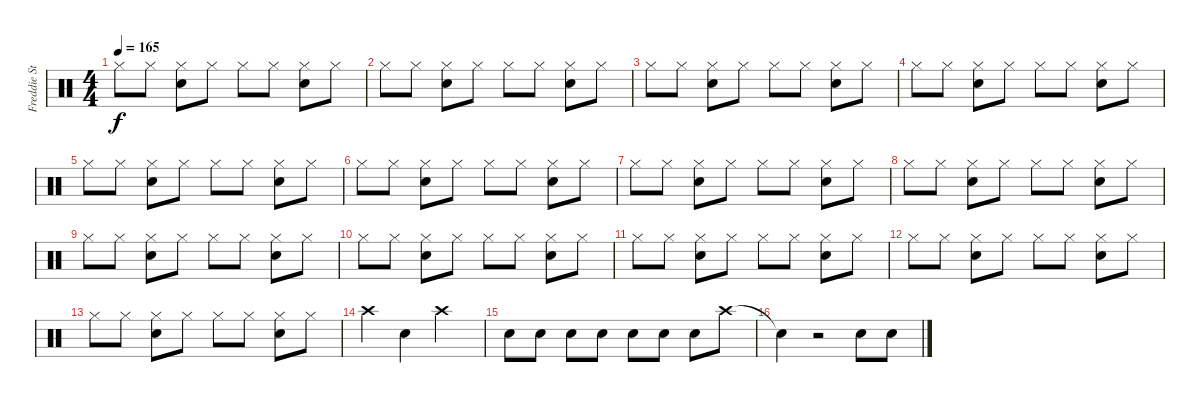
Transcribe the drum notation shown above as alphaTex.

\track ("Freddie Strauks" "Freddie St") {instrument percussion}
\staff {score}
\articulation defaults
\ts (4 4)
\tempo 165
\clef neutral
\ks c "Hi-Hat (closed)".8{dy f} "Hi-Hat (closed)".8
("Hi-Hat (closed)" "Snare (hit) 2").8 "Hi-Hat (closed)".8 "Hi-Hat (closed)".8 "Hi-Hat (closed)".8 ("Hi-Hat (closed)" "Snare (hit) 2").8 "Hi-Hat (closed)".8 |
"Hi-Hat (closed)".8 "Hi-Hat (closed)".8 ("Hi-Hat (closed)" "Snare (hit) 2").8 "Hi-Hat (closed)".8 "Hi-Hat (closed)".8 "Hi-Hat (closed)".8 ("Hi-Hat (closed)" "Snare (hit) 2").8 "Hi-Hat (closed)".8 |
"Hi-Hat (closed)".8 "Hi-Hat (closed)".8 ("Hi-Hat (closed)" "Snare (hit) 2").8 "Hi-Hat (closed)".8 "Hi-Hat (closed)".8 "Hi-Hat (closed)".8 ("Hi-Hat (closed)" "Snare (hit) 2").8 "Hi-Hat (closed)".8 |
"Hi-Hat (closed)".8 "Hi-Hat (closed)".8 ("Hi-Hat (closed)" "Snare (hit) 2").8 "Hi-Hat (closed)".8 "Hi-Hat (closed)".8 "Hi-Hat (closed)".8 ("Hi-Hat (closed)" "Snare (hit) 2").8 "Hi-Hat (closed)".8 |
"Hi-Hat (closed)".8 "Hi-Hat (closed)".8 ("Hi-Hat (closed)" "Snare (hit) 2").8 "Hi-Hat (closed)".8 "Hi-Hat (closed)".8 "Hi-Hat (closed)".8 ("Hi-Hat (closed)" "Snare (hit) 2").8 "Hi-Hat (closed)".8 |
"Hi-Hat (closed)".8 "Hi-Hat (closed)".8 ("Hi-Hat (closed)" "Snare (hit) 2").8 "Hi-Hat (closed)".8 "Hi-Hat (closed)".8 "Hi-Hat (closed)".8 ("Hi-Hat (closed)" "Snare (hit) 2").8 "Hi-Hat (closed)".8 |
"Hi-Hat (closed)".8 "Hi-Hat (closed)".8 ("Hi-Hat (closed)" "Snare (hit) 2").8 "Hi-Hat (closed)".8 "Hi-Hat (closed)".8 "Hi-Hat (closed)".8 ("Hi-Hat (closed)" "Snare (hit) 2").8 "Hi-Hat (closed)".8 |
"Hi-Hat (closed)".8 "Hi-Hat (closed)".8 ("Hi-Hat (closed)" "Snare (hit) 2").8 "Hi-Hat (closed)".8 "Hi-Hat (closed)".8 "Hi-Hat (closed)".8 ("Hi-Hat (closed)" "Snare (hit) 2").8 "Hi-Hat (closed)".8 |
"Hi-Hat (closed)".8 "Hi-Hat (closed)".8 ("Hi-Hat (closed)" "Snare (hit) 2").8 "Hi-Hat (closed)".8 "Hi-Hat (closed)".8 "Hi-Hat (closed)".8 ("Hi-Hat (closed)" "Snare (hit) 2").8 "Hi-Hat (closed)".8 |
"Hi-Hat (closed)".8 "Hi-Hat (closed)".8 ("Hi-Hat (closed)" "Snare (hit) 2").8 "Hi-Hat (closed)".8 "Hi-Hat (closed)".8 "Hi-Hat (closed)".8 ("Hi-Hat (closed)" "Snare (hit) 2").8 "Hi-Hat (closed)".8 |
"Hi-Hat (closed)".8 "Hi-Hat (closed)".8 ("Hi-Hat (closed)" "Snare (hit) 2").8 "Hi-Hat (closed)".8 "Hi-Hat (closed)".8 "Hi-Hat (closed)".8 ("Hi-Hat (closed)" "Snare (hit) 2").8 "Hi-Hat (closed)".8 |
"Hi-Hat (closed)".8 "Hi-Hat (closed)".8 ("Hi-Hat (closed)" "Snare (hit) 2").8 "Hi-Hat (closed)".8 "Hi-Hat (closed)".8 "Hi-Hat (closed)".8 ("Hi-Hat (closed)" "Snare (hit) 2").8 "Hi-Hat (closed)".8 |
"Hi-Hat (closed)".8 "Hi-Hat (closed)".8 ("Hi-Hat (closed)" "Snare (hit) 2").8 "Hi-Hat (closed)".8 "Hi-Hat (closed)".8 "Hi-Hat (closed)".8 ("Hi-Hat (closed)" "Snare (hit) 2").8 "Hi-Hat (closed)".8 |
"Crash high (hit)".4 "Snare (hit) 2".4 "Crash high (hit)".2 |
"Snare (hit) 2".8 "Snare (hit) 2".8 "Snare (hit) 2".8 "Snare (hit) 2".8 "Snare (hit) 2".8 "Snare (hit) 2".8 "Snare (hit) 2".8 "Crash high (hit)".8 |
"Snare (hit)"{t}.4 r.2 "Snare (hit) 2".8 "Snare (hit) 2".8
